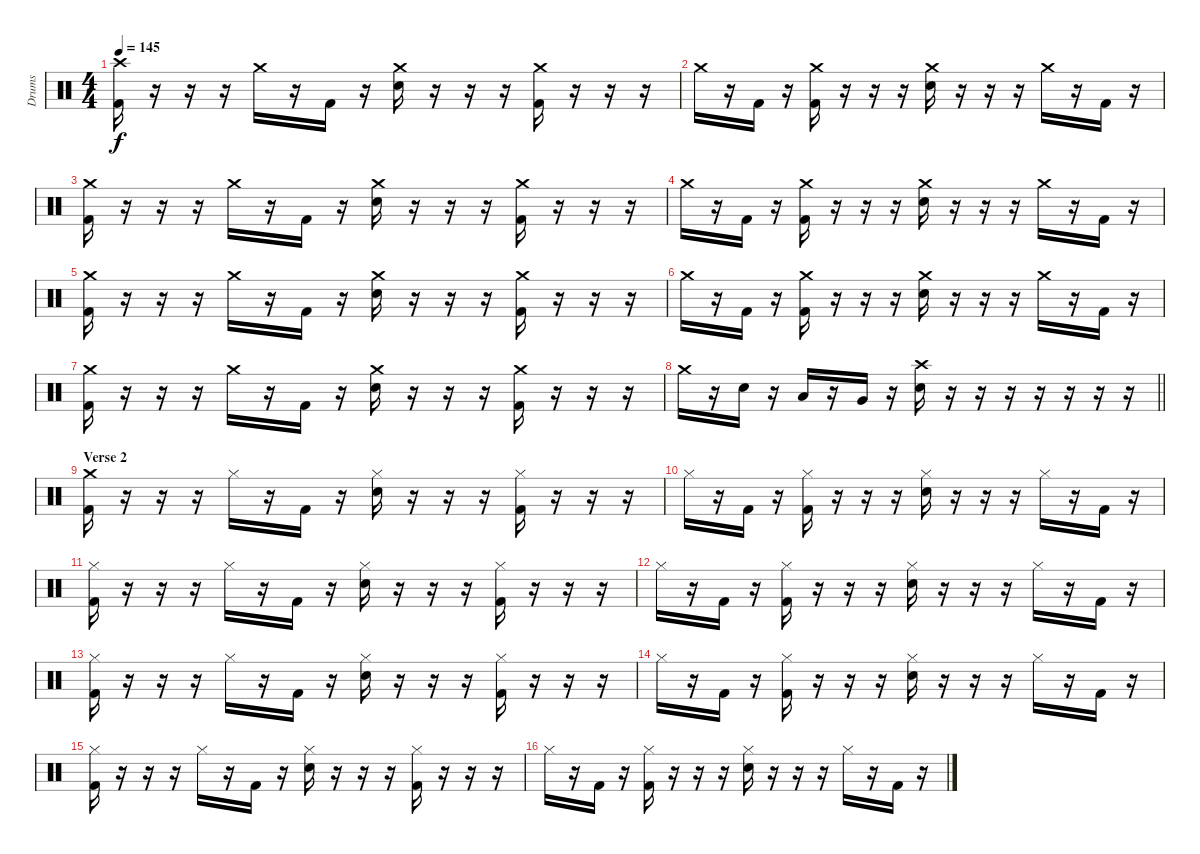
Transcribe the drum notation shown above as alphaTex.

\track ("Drums" "Drums") {instrument percussion}
\staff {score}
\articulation defaults
\ts (4 4)
\tempo 145
\clef neutral
\ks c
("Crash high (hit)" "Kick (hit) 2").16{dy f} r.16 r.16 r.16 "Crash medium (hit)".16 r.16 "Kick (hit) 2".16 r.16 ("Crash medium (hit)" "Electric Snare (hit)").16 r.16 r.16 r.16 ("Crash medium (hit)" "Kick (hit) 2").16 r.16 r.16 r.16 |
"Crash medium (hit)".16 r.16 "Kick (hit) 2".16 r.16 ("Crash medium (hit)" "Kick (hit) 2").16 r.16 r.16 r.16 ("Crash medium (hit)" "Electric Snare (hit)").16 r.16 r.16 r.16 "Crash medium (hit)".16 r.16 "Kick (hit) 2".16 r.16 |
("Crash medium (hit)" "Kick (hit) 2").16 r.16 r.16 r.16 "Crash medium (hit)".16 r.16 "Kick (hit) 2".16 r.16 ("Crash medium (hit)" "Electric Snare (hit)").16 r.16 r.16 r.16 ("Crash medium (hit)" "Kick (hit) 2").16 r.16 r.16 r.16 |
"Crash medium (hit)".16 r.16 "Kick (hit) 2".16 r.16 ("Crash medium (hit)" "Kick (hit) 2").16 r.16 r.16 r.16 ("Crash medium (hit)" "Electric Snare (hit)").16 r.16 r.16 r.16 "Crash medium (hit)".16 r.16 "Kick (hit) 2".16 r.16 |
("Crash medium (hit)" "Kick (hit) 2").16 r.16 r.16 r.16 "Crash medium (hit)".16 r.16 "Kick (hit) 2".16 r.16 ("Crash medium (hit)" "Electric Snare (hit)").16 r.16 r.16 r.16 ("Crash medium (hit)" "Kick (hit) 2").16 r.16 r.16 r.16 |
"Crash medium (hit)".16 r.16 "Kick (hit) 2".16 r.16 ("Crash medium (hit)" "Kick (hit) 2").16 r.16 r.16 r.16 ("Crash medium (hit)" "Electric Snare (hit)").16 r.16 r.16 r.16 "Crash medium (hit)".16 r.16 "Kick (hit) 2".16 r.16 |
("Crash medium (hit)" "Kick (hit) 2").16 r.16 r.16 r.16 "Crash medium (hit)".16 r.16 "Kick (hit) 2".16 r.16 ("Crash medium (hit)" "Electric Snare (hit)").16 r.16 r.16 r.16 ("Crash medium (hit)" "Kick (hit) 2").16 r.16 r.16 r.16 |
\barLineRight lightlight "Crash medium (hit)".16
r.16 "Electric Snare (hit)".16 r.16 "Low Tom (hit)".16 r.16 "Very Low Tom (hit)".16 r.16 ("Crash high (hit)" "Electric Snare (hit)").16 r.16 r.16 r.16 r.16 r.16 r.16 r.16 |
\section ("" "Verse 2")
("Crash medium (hit)" "Kick (hit) 2").16 r.16 r.16 r.16 "Hi-Hat (closed)".16 r.16 "Kick (hit) 2".16 r.16 ("Hi-Hat (closed)" "Electric Snare (hit)").16 r.16 r.16 r.16 ("Hi-Hat (closed)" "Kick (hit) 2").16 r.16 r.16 r.16 |
"Hi-Hat (closed)".16 r.16 "Kick (hit) 2".16 r.16 ("Hi-Hat (closed)" "Kick (hit) 2").16 r.16 r.16 r.16 ("Hi-Hat (closed)" "Electric Snare (hit)").16 r.16 r.16 r.16 "Hi-Hat (closed)".16 r.16 "Kick (hit) 2".16 r.16 |
("Hi-Hat (closed)" "Kick (hit) 2").16 r.16 r.16 r.16 "Hi-Hat (closed)".16 r.16 "Kick (hit) 2".16 r.16 ("Hi-Hat (closed)" "Electric Snare (hit)").16 r.16 r.16 r.16 ("Hi-Hat (closed)" "Kick (hit) 2").16 r.16 r.16 r.16 |
"Hi-Hat (closed)".16 r.16 "Kick (hit) 2".16 r.16 ("Hi-Hat (closed)" "Kick (hit) 2").16 r.16 r.16 r.16 ("Hi-Hat (closed)" "Electric Snare (hit)").16 r.16 r.16 r.16 "Hi-Hat (closed)".16 r.16 "Kick (hit) 2".16 r.16 |
("Hi-Hat (closed)" "Kick (hit) 2").16 r.16 r.16 r.16 "Hi-Hat (closed)".16 r.16 "Kick (hit) 2".16 r.16 ("Hi-Hat (closed)" "Electric Snare (hit)").16 r.16 r.16 r.16 ("Hi-Hat (closed)" "Kick (hit) 2").16 r.16 r.16 r.16 |
"Hi-Hat (closed)".16 r.16 "Kick (hit) 2".16 r.16 ("Hi-Hat (closed)" "Kick (hit) 2").16 r.16 r.16 r.16 ("Hi-Hat (closed)" "Electric Snare (hit)").16 r.16 r.16 r.16 "Hi-Hat (closed)".16 r.16 "Kick (hit) 2".16 r.16 |
("Hi-Hat (closed)" "Kick (hit) 2").16 r.16 r.16 r.16 "Hi-Hat (closed)".16 r.16 "Kick (hit) 2".16 r.16 ("Hi-Hat (closed)" "Electric Snare (hit)").16 r.16 r.16 r.16 ("Hi-Hat (closed)" "Kick (hit) 2").16 r.16 r.16 r.16 |
"Hi-Hat (closed)".16 r.16 "Kick (hit) 2".16 r.16 ("Hi-Hat (closed)" "Kick (hit) 2").16 r.16 r.16 r.16 ("Hi-Hat (closed)" "Electric Snare (hit)").16 r.16 r.16 r.16 "Hi-Hat (closed)".16 r.16 "Kick (hit) 2".16 r.16
